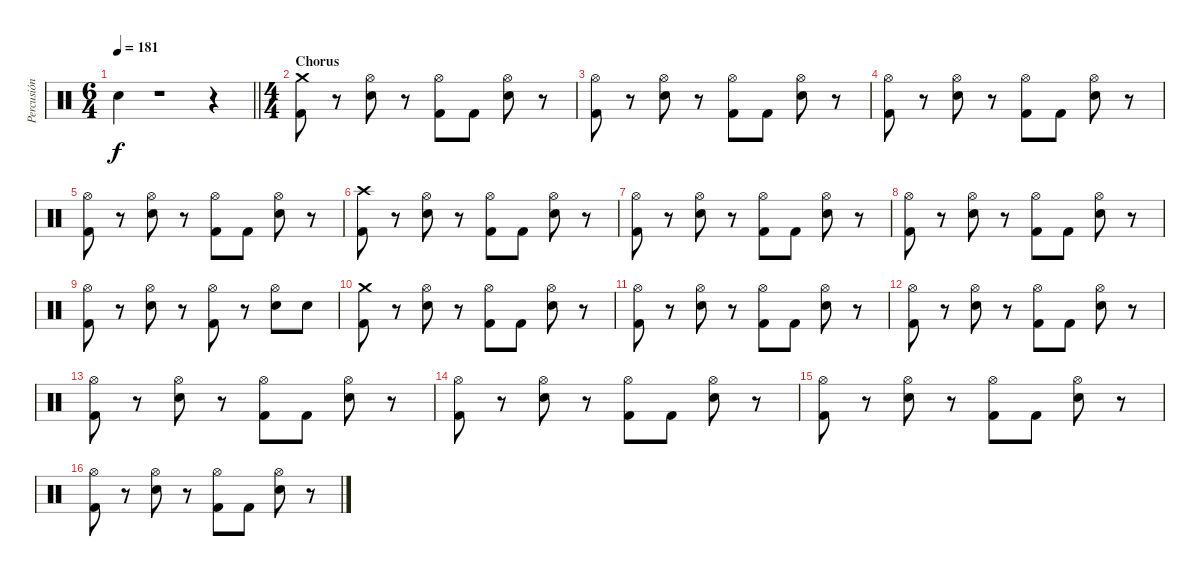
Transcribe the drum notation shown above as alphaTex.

\track ("Percusión" "Percusión") {instrument percussion}
\staff {score}
\articulation defaults
\ts (6 4)
\tempo 181
\clef neutral
\barLineRight lightlight
\ks c "Electric Snare (hit)".4{dy f}
r.1 r.4 |
\ts (4 4)
\section ("" "Chorus")
("Crash medium (hit)" "Kick (hit) 2").8 r.8 ("Hi-Hat (open)" "Electric Snare (hit)").8 r.8 ("Hi-Hat (open)" "Kick (hit) 2").8 "Kick (hit) 2".8 ("Hi-Hat (open)" "Electric Snare (hit)").8 r.8 |
("Hi-Hat (open)" "Kick (hit) 2").8 r.8 ("Hi-Hat (open)" "Electric Snare (hit)").8 r.8 ("Hi-Hat (open)" "Kick (hit) 2").8 "Kick (hit) 2".8 ("Hi-Hat (open)" "Electric Snare (hit)").8 r.8 |
("Hi-Hat (open)" "Kick (hit) 2").8 r.8 ("Hi-Hat (open)" "Electric Snare (hit)").8 r.8 ("Hi-Hat (open)" "Kick (hit) 2").8 "Kick (hit) 2".8 ("Hi-Hat (open)" "Electric Snare (hit)").8 r.8 |
("Hi-Hat (open)" "Kick (hit) 2").8 r.8 ("Hi-Hat (open)" "Electric Snare (hit)").8 r.8 ("Hi-Hat (open)" "Kick (hit) 2").8 "Kick (hit) 2".8 ("Hi-Hat (open)" "Electric Snare (hit)").8 r.8 |
("Crash high (hit)" "Kick (hit) 2").8 r.8 ("Hi-Hat (open)" "Electric Snare (hit)").8 r.8 ("Hi-Hat (open)" "Kick (hit) 2").8 "Kick (hit) 2".8 ("Hi-Hat (open)" "Electric Snare (hit)").8 r.8 |
("Hi-Hat (open)" "Kick (hit) 2").8 r.8 ("Hi-Hat (open)" "Electric Snare (hit)").8 r.8 ("Hi-Hat (open)" "Kick (hit) 2").8 "Kick (hit) 2".8 ("Hi-Hat (open)" "Electric Snare (hit)").8 r.8 |
("Hi-Hat (open)" "Kick (hit) 2").8 r.8 ("Hi-Hat (open)" "Electric Snare (hit)").8 r.8 ("Hi-Hat (open)" "Kick (hit) 2").8 "Kick (hit) 2".8 ("Hi-Hat (open)" "Electric Snare (hit)").8 r.8 |
("Hi-Hat (open)" "Kick (hit) 2").8 r.8 ("Hi-Hat (open)" "Electric Snare (hit)").8 r.8 ("Hi-Hat (open)" "Kick (hit) 2").8 r.8 ("Hi-Hat (open)" "Electric Snare (hit)").8 "Electric Snare (hit)".8 |
("Crash medium (hit)" "Kick (hit) 2").8 r.8 ("Hi-Hat (open)" "Electric Snare (hit)").8 r.8 ("Hi-Hat (open)" "Kick (hit) 2").8 "Kick (hit) 2".8 ("Hi-Hat (open)" "Electric Snare (hit)").8 r.8 |
("Hi-Hat (open)" "Kick (hit) 2").8 r.8 ("Hi-Hat (open)" "Electric Snare (hit)").8 r.8 ("Hi-Hat (open)" "Kick (hit) 2").8 "Kick (hit) 2".8 ("Hi-Hat (open)" "Electric Snare (hit)").8 r.8 |
("Hi-Hat (open)" "Kick (hit) 2").8 r.8 ("Hi-Hat (open)" "Electric Snare (hit)").8 r.8 ("Hi-Hat (open)" "Kick (hit) 2").8 "Kick (hit) 2".8 ("Hi-Hat (open)" "Electric Snare (hit)").8 r.8 |
("Hi-Hat (open)" "Kick (hit) 2").8 r.8 ("Hi-Hat (open)" "Electric Snare (hit)").8 r.8 ("Hi-Hat (open)" "Kick (hit) 2").8 "Kick (hit) 2".8 ("Hi-Hat (open)" "Electric Snare (hit)").8 r.8 |
("Hi-Hat (open)" "Kick (hit) 2").8 r.8 ("Hi-Hat (open)" "Electric Snare (hit)").8 r.8 ("Hi-Hat (open)" "Kick (hit) 2").8 "Kick (hit) 2".8 ("Hi-Hat (open)" "Electric Snare (hit)").8 r.8 |
("Hi-Hat (open)" "Kick (hit) 2").8 r.8 ("Hi-Hat (open)" "Electric Snare (hit)").8 r.8 ("Hi-Hat (open)" "Kick (hit) 2").8 "Kick (hit) 2".8 ("Hi-Hat (open)" "Electric Snare (hit)").8 r.8 |
("Hi-Hat (open)" "Kick (hit) 2").8 r.8 ("Hi-Hat (open)" "Electric Snare (hit)").8 r.8 ("Hi-Hat (open)" "Kick (hit) 2").8 "Kick (hit) 2".8 ("Hi-Hat (open)" "Electric Snare (hit)").8 r.8
